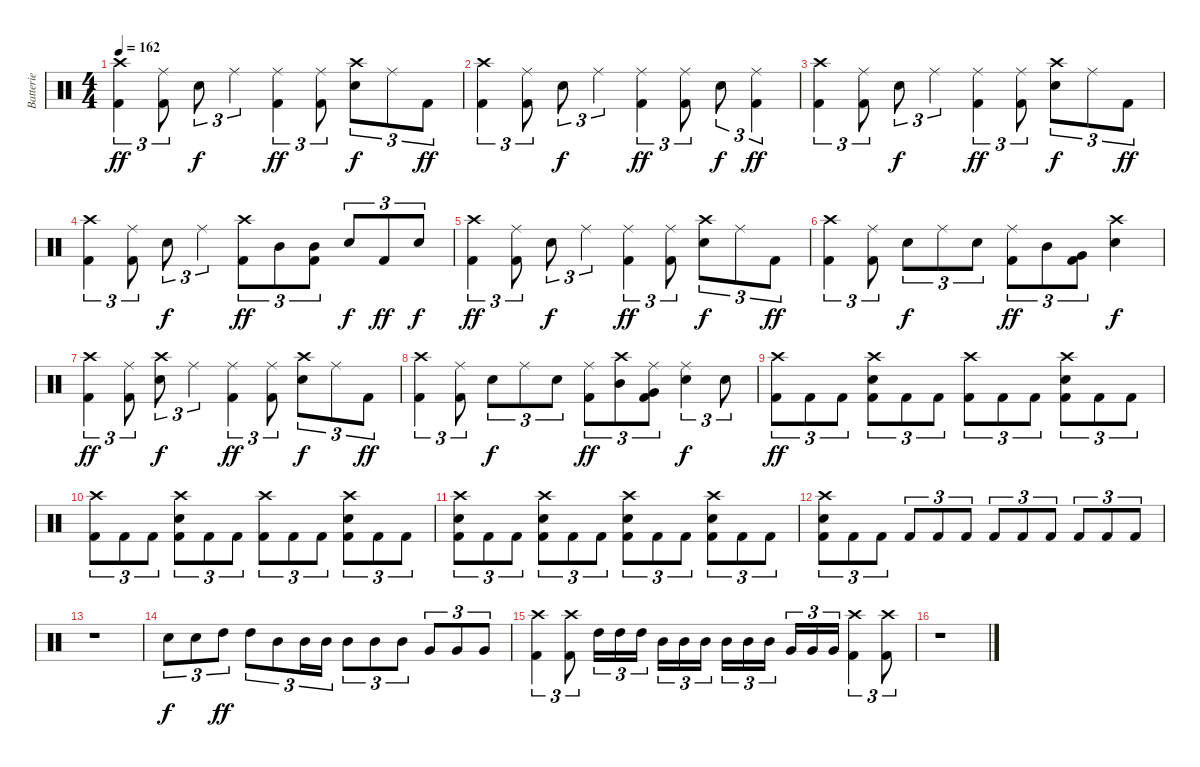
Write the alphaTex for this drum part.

\track ("Batterie" "Batterie") {instrument percussion}
\staff {score}
\articulation defaults
\ts (4 4)
\tempo 162
\clef neutral
\ks c
("Crash high (hit)" "Kick (hit) 2").4{tu (3 2) dy ff} ("Ride (middle)" "Kick (hit) 2").8{tu (3 2)} "Snare (hit) 2".8{tu (3 2) dy f} "Ride (middle)".4{tu (3 2)} ("Ride (middle)" "Kick (hit) 2").4{tu (3 2) dy ff} ("Ride (middle)" "Kick (hit) 2").8{tu (3 2)} ("Crash high (hit)" "Snare (hit) 2").8{tu (3 2) dy f} "Ride (middle)".8{tu (3 2)} "Kick (hit) 2".8{tu (3 2) dy ff} |
("Crash high (hit)" "Kick (hit) 2").4{tu (3 2)} ("Ride (middle)" "Kick (hit) 2").8{tu (3 2)} "Snare (hit) 2".8{tu (3 2) dy f} "Ride (middle)".4{tu (3 2)} ("Ride (middle)" "Kick (hit) 2").4{tu (3 2) dy ff} ("Ride (middle)" "Kick (hit) 2").8{tu (3 2)} "Snare (hit) 2".8{tu (3 2) dy f} ("Ride (middle)" "Kick (hit) 2").4{tu (3 2) dy ff} |
("Crash high (hit)" "Kick (hit) 2").4{tu (3 2)} ("Ride (middle)" "Kick (hit) 2").8{tu (3 2)} "Snare (hit) 2".8{tu (3 2) dy f} "Ride (middle)".4{tu (3 2)} ("Ride (middle)" "Kick (hit) 2").4{tu (3 2) dy ff} ("Ride (middle)" "Kick (hit) 2").8{tu (3 2)} ("Crash high (hit)" "Snare (hit) 2").8{tu (3 2) dy f} "Ride (middle)".8{tu (3 2)} "Kick (hit) 2".8{tu (3 2) dy ff} |
("Crash high (hit)" "Kick (hit) 2").4{tu (3 2)} ("Ride (middle)" "Kick (hit) 2").8{tu (3 2)} "Snare (hit) 2".8{tu (3 2) dy f} "Ride (middle)".4{tu (3 2)} ("Crash high (hit)" "Kick (hit) 2").8{tu (3 2) dy ff} "Mid Tom (hit)".8{tu (3 2)} ("Mid Tom (hit)" "Kick (hit) 2").8{tu (3 2)} "Snare (hit) 2".8{tu (3 2) dy f} "Kick (hit) 2".8{tu (3 2) dy ff} "Snare (hit) 2".8{tu (3 2) dy f} |
("Crash high (hit)" "Kick (hit) 2").4{tu (3 2) dy ff} ("Ride (middle)" "Kick (hit) 2").8{tu (3 2)} "Snare (hit) 2".8{tu (3 2) dy f} "Ride (middle)".4{tu (3 2)} ("Ride (middle)" "Kick (hit) 2").4{tu (3 2) dy ff} ("Ride (middle)" "Kick (hit) 2").8{tu (3 2)} ("Crash high (hit)" "Snare (hit) 2").8{tu (3 2) dy f} "Ride (middle)".8{tu (3 2)} "Kick (hit) 2".8{tu (3 2) dy ff} |
("Crash high (hit)" "Kick (hit) 2").4{tu (3 2)} ("Ride (middle)" "Kick (hit) 2").8{tu (3 2)} "Snare (hit) 2".8{tu (3 2) dy f} "Ride (middle)".8{tu (3 2)} "Snare (hit) 2".8{tu (3 2)} ("Ride (middle)" "Kick (hit) 2").8{tu (3 2) dy ff} "Mid Tom (hit)".8{tu (3 2)} ("Very Low Tom (hit)" "Kick (hit) 2").8{tu (3 2)} ("Crash high (hit)" "Snare (hit) 2").4{dy f} |
("Crash high (hit)" "Kick (hit) 2").4{tu (3 2) dy ff} ("Ride (middle)" "Kick (hit) 2").8{tu (3 2)} ("Crash high (hit)" "Snare (hit) 2").8{tu (3 2) dy f} "Ride (middle)".4{tu (3 2)} ("Ride (middle)" "Kick (hit) 2").4{tu (3 2) dy ff} ("Ride (middle)" "Kick (hit) 2").8{tu (3 2)} ("Crash high (hit)" "Snare (hit) 2").8{tu (3 2) dy f} "Ride (middle)".8{tu (3 2)} "Kick (hit) 2".8{tu (3 2) dy ff} |
("Crash high (hit)" "Kick (hit) 2").4{tu (3 2)} ("Ride (middle)" "Kick (hit) 2").8{tu (3 2)} "Snare (hit) 2".8{tu (3 2) dy f} "Ride (middle)".8{tu (3 2)} "Snare (hit) 2".8{tu (3 2)} ("Ride (middle)" "Kick (hit) 2").8{tu (3 2) dy ff} ("Crash high (hit)" "Mid Tom (hit)").8{tu (3 2)} ("Ride (middle)" "Very Low Tom (hit)" "Kick (hit) 2").8{tu (3 2)} ("Ride (middle)" "Snare (hit) 2").4{tu (3 2) dy f} "Snare (hit) 2".8{tu (3 2)} |
("Crash high (hit)" "Kick (hit) 2").8{tu (3 2) dy ff} "Kick (hit) 2".8{tu (3 2)} "Kick (hit) 2".8{tu (3 2)} ("Crash high (hit)" "Snare (hit) 2" "Kick (hit) 2").8{tu (3 2)} "Kick (hit) 2".8{tu (3 2)} "Kick (hit) 2".8{tu (3 2)} ("Crash high (hit)" "Kick (hit) 2").8{tu (3 2)} "Kick (hit) 2".8{tu (3 2)} "Kick (hit) 2".8{tu (3 2)} ("Crash high (hit)" "Snare (hit) 2" "Kick (hit) 2").8{tu (3 2)} "Kick (hit) 2".8{tu (3 2)} "Kick (hit) 2".8{tu (3 2)} |
("Crash high (hit)" "Kick (hit) 2").8{tu (3 2)} "Kick (hit) 2".8{tu (3 2)} "Kick (hit) 2".8{tu (3 2)} ("Crash high (hit)" "Snare (hit) 2" "Kick (hit) 2").8{tu (3 2)} "Kick (hit) 2".8{tu (3 2)} "Kick (hit) 2".8{tu (3 2)} ("Crash high (hit)" "Kick (hit) 2").8{tu (3 2)} "Kick (hit) 2".8{tu (3 2)} "Kick (hit) 2".8{tu (3 2)} ("Crash high (hit)" "Snare (hit) 2" "Kick (hit) 2").8{tu (3 2)} "Kick (hit) 2".8{tu (3 2)} "Kick (hit) 2".8{tu (3 2)} |
("Crash high (hit)" "Snare (hit) 2" "Kick (hit) 2").8{tu (3 2)} "Kick (hit) 2".8{tu (3 2)} "Kick (hit) 2".8{tu (3 2)} ("Crash high (hit)" "Snare (hit) 2" "Kick (hit) 2").8{tu (3 2)} "Kick (hit) 2".8{tu (3 2)} "Kick (hit) 2".8{tu (3 2)} ("Crash high (hit)" "Snare (hit) 2" "Kick (hit) 2").8{tu (3 2)} "Kick (hit) 2".8{tu (3 2)} "Kick (hit) 2".8{tu (3 2)} ("Crash high (hit)" "Snare (hit) 2" "Kick (hit) 2").8{tu (3 2)} "Kick (hit) 2".8{tu (3 2)} "Kick (hit) 2".8{tu (3 2)} |
("Crash high (hit)" "Snare (hit) 2" "Kick (hit) 2").8{tu (3 2)} "Kick (hit) 2".8{tu (3 2)} "Kick (hit) 2".8{tu (3 2)} "Kick (hit) 2".8{tu (3 2)} "Kick (hit) 2".8{tu (3 2)} "Kick (hit) 2".8{tu (3 2)} "Kick (hit) 2".8{tu (3 2)} "Kick (hit) 2".8{tu (3 2)} "Kick (hit) 2".8{tu (3 2)} "Kick (hit) 2".8{tu (3 2)} "Kick (hit) 2".8{tu (3 2)} "Kick (hit) 2".8{tu (3 2)} |
r.1 |
"Snare (hit) 2".8{tu (3 2) dy f} "Snare (hit) 2".8{tu (3 2)} "High Tom (hit)".8{tu (3 2) dy ff} "High Tom (hit)".8{tu (3 2)} "Mid Tom (hit)".8{tu (3 2)} "Mid Tom (hit)".16{tu (3 2)} "Mid Tom (hit)".16{tu (3 2)} "Mid Tom (hit)".8{tu (3 2)} "Mid Tom (hit)".8{tu (3 2)} "Mid Tom (hit)".8{tu (3 2)} "Very Low Tom (hit)".8{tu (3 2)} "Very Low Tom (hit)".8{tu (3 2)} "Very Low Tom (hit)".8{tu (3 2)} |
("Crash high (hit)" "Kick (hit) 2").4{tu (3 2)} ("Crash high (hit)" "Kick (hit) 2").8{tu (3 2)} "High Tom (hit)".16{tu (3 2)} "High Tom (hit)".16{tu (3 2)} "High Tom (hit)".16{tu (3 2) beam splitsecondary} "Mid Tom (hit)".16{tu (3 2)} "Mid Tom (hit)".16{tu (3 2)} "Mid Tom (hit)".16{tu (3 2)} "Mid Tom (hit)".16{tu (3 2)} "Mid Tom (hit)".16{tu (3 2)} "Mid Tom (hit)".16{tu (3 2) beam splitsecondary} "Very Low Tom (hit)".16{tu (3 2)} "Very Low Tom (hit)".16{tu (3 2)} "Very Low Tom (hit)".16{tu (3 2)} ("Crash high (hit)" "Kick (hit) 2").4{tu (3 2)} ("Crash high (hit)" "Kick (hit) 2").8{tu (3 2)} |
r.1
